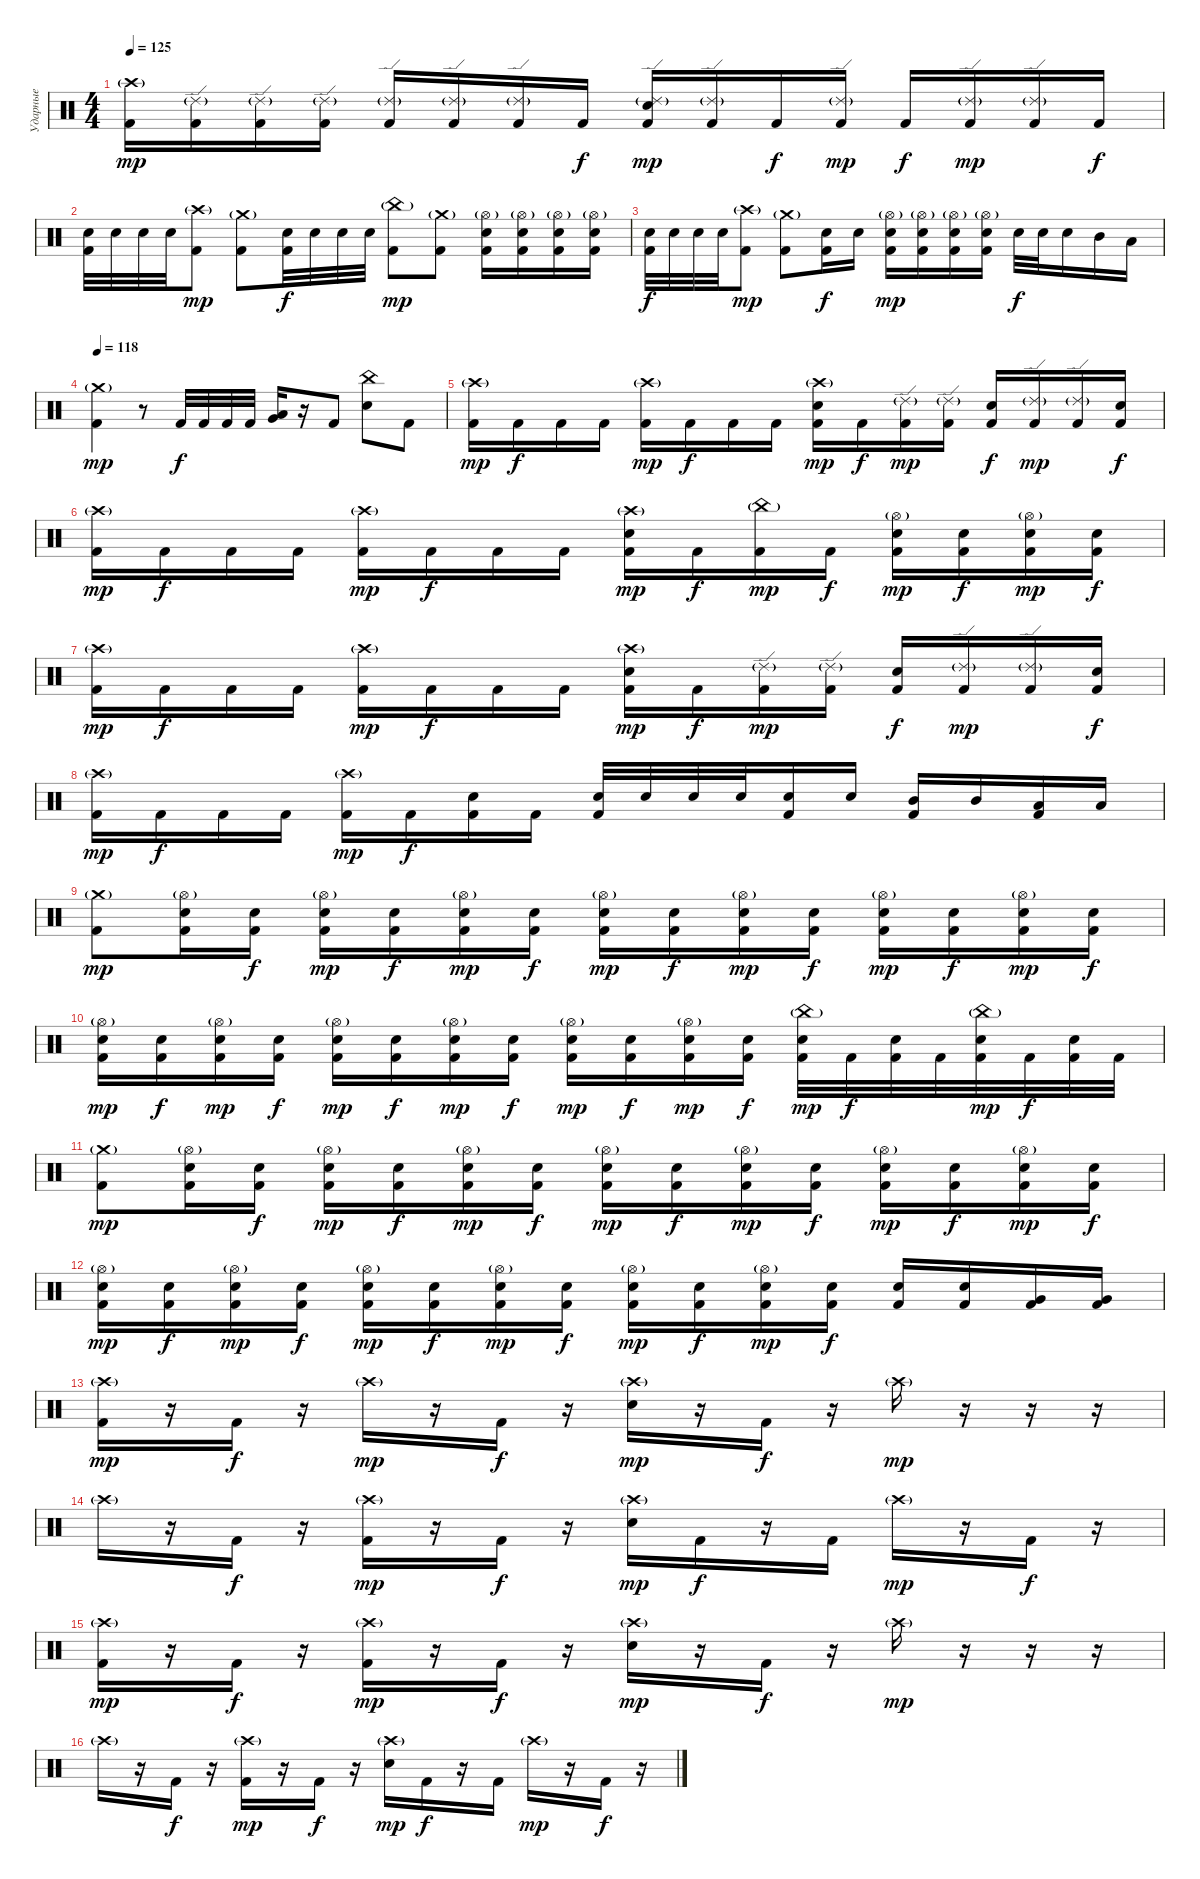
\track ("Ударные" "Ударные") {instrument percussion}
\staff {score}
\articulation defaults
\ts (4 4)
\tempo 125
\clef neutral
\ks c
("Crash high (hit)"{g} "Kick (hit) 2").16{dy mp} ("Ride (edge) 2"{g} "Kick (hit) 2").16 ("Ride (edge) 2"{g} "Kick (hit) 2").16 ("Ride (edge) 2"{g} "Kick (hit) 2").16 ("Ride (edge) 2"{g} "Kick (hit) 2").16 ("Ride (edge) 2"{g} "Kick (hit) 2").16 ("Ride (edge) 2"{g} "Kick (hit) 2").16 "Kick (hit) 2".16{dy f} ("Ride (edge) 2"{g} "Electric Snare (hit)" "Kick (hit) 2").16{dy mp} ("Ride (edge) 2"{g} "Kick (hit) 2").16 "Kick (hit) 2".16{dy f} ("Ride (edge) 2"{g} "Kick (hit) 2").16{dy mp} "Kick (hit) 2".16{dy f} ("Ride (edge) 2"{g} "Kick (hit) 2").16{dy mp} ("Ride (edge) 2"{g} "Kick (hit) 2").16 "Kick (hit) 2".16{dy f} |
("Electric Snare (hit)" "Kick (hit) 2").32 "Electric Snare (hit)".32 "Electric Snare (hit)".32 "Electric Snare (hit)".32 ("Crash high (hit)"{g} "Kick (hit) 2").8{dy mp} ("Crash medium (hit)"{g} "Kick (hit) 2").8 ("Electric Snare (hit)" "Kick (hit) 2").32{dy f} "Electric Snare (hit)".32 "Electric Snare (hit)".32 "Electric Snare (hit)".32 ("China (hit)"{g} "Kick (hit) 2").8{dy mp} ("Crash medium (hit)"{g} "Kick (hit) 2").8 ("Hi-Hat (open)"{g} "Electric Snare (hit)" "Kick (hit) 2").16 ("Hi-Hat (open)"{g} "Electric Snare (hit)" "Kick (hit) 2").16 ("Hi-Hat (open)"{g} "Electric Snare (hit)" "Kick (hit) 2").16 ("Hi-Hat (open)"{g} "Electric Snare (hit)" "Kick (hit) 2").16 |
("Electric Snare (hit)" "Kick (hit) 2").32{dy f} "Electric Snare (hit)".32 "Electric Snare (hit)".32 "Electric Snare (hit)".32 ("Crash high (hit)"{g} "Kick (hit) 2").8{dy mp} ("Crash medium (hit)"{g} "Kick (hit) 2").8 ("Electric Snare (hit)" "Kick (hit) 2").16{dy f} "Electric Snare (hit)".16 ("Hi-Hat (open)"{g} "Electric Snare (hit)" "Kick (hit) 2").16{dy mp} ("Hi-Hat (open)"{g} "Electric Snare (hit)" "Kick (hit) 2").16 ("Hi-Hat (open)"{g} "Electric Snare (hit)" "Kick (hit) 2").16 ("Hi-Hat (open)"{g} "Electric Snare (hit)" "Kick (hit) 2").16 "Electric Snare (hit)".32{dy f} "Electric Snare (hit)".32 "Electric Snare (hit)".16 "Mid Tom (hit)".16 "Low Tom (hit)".16 |
\tempo 118
("Crash medium (hit)"{g} "Kick (hit) 2").4{dy mp} r.8 "Kick (hit) 2".32{dy f} "Kick (hit) 2".32 "Kick (hit) 2".32 "Kick (hit) 2".32 ("Low Floor Tom (hit)" "Very Low Tom (hit)").16 r.16 "Kick (hit) 2".8 ("China (hit)" "Electric Snare (hit)").8 "Kick (hit) 2".8 |
("Crash high (hit)"{g} "Kick (hit) 2").16{dy mp} "Kick (hit) 2".16{dy f} "Kick (hit) 2".16 "Kick (hit) 2".16 ("Crash high (hit)"{g} "Kick (hit) 2").16{dy mp} "Kick (hit) 2".16{dy f} "Kick (hit) 2".16 "Kick (hit) 2".16 ("Crash high (hit)"{g} "Electric Snare (hit)" "Kick (hit) 2").16{dy mp} "Kick (hit) 2".16{dy f} ("Ride (edge) 2"{g} "Kick (hit) 2").16{dy mp} ("Ride (edge) 2"{g} "Kick (hit) 2").16 ("Electric Snare (hit)" "Kick (hit) 2").16{dy f} ("Ride (edge) 2"{g} "Kick (hit) 2").16{dy mp} ("Ride (edge) 2"{g} "Kick (hit) 2").16 ("Electric Snare (hit)" "Kick (hit) 2").16{dy f} |
("Crash high (hit)"{g} "Kick (hit) 2").16{dy mp} "Kick (hit) 2".16{dy f} "Kick (hit) 2".16 "Kick (hit) 2".16 ("Crash high (hit)"{g} "Kick (hit) 2").16{dy mp} "Kick (hit) 2".16{dy f} "Kick (hit) 2".16 "Kick (hit) 2".16 ("Crash high (hit)"{g} "Electric Snare (hit)" "Kick (hit) 2").16{dy mp} "Kick (hit) 2".16{dy f} ("China (hit)"{g} "Kick (hit) 2").16{dy mp} "Kick (hit) 2".16{dy f} ("Hi-Hat (open)"{g} "Electric Snare (hit)" "Kick (hit) 2").16{dy mp} ("Electric Snare (hit)" "Kick (hit) 2").16{dy f} ("Hi-Hat (open)"{g} "Electric Snare (hit)" "Kick (hit) 2").16{dy mp} ("Electric Snare (hit)" "Kick (hit) 2").16{dy f} |
("Crash high (hit)"{g} "Kick (hit) 2").16{dy mp} "Kick (hit) 2".16{dy f} "Kick (hit) 2".16 "Kick (hit) 2".16 ("Crash high (hit)"{g} "Kick (hit) 2").16{dy mp} "Kick (hit) 2".16{dy f} "Kick (hit) 2".16 "Kick (hit) 2".16 ("Crash high (hit)"{g} "Electric Snare (hit)" "Kick (hit) 2").16{dy mp} "Kick (hit) 2".16{dy f} ("Ride (edge) 2"{g} "Kick (hit) 2").16{dy mp} ("Ride (edge) 2"{g} "Kick (hit) 2").16 ("Electric Snare (hit)" "Kick (hit) 2").16{dy f} ("Ride (edge) 2"{g} "Kick (hit) 2").16{dy mp} ("Ride (edge) 2"{g} "Kick (hit) 2").16 ("Electric Snare (hit)" "Kick (hit) 2").16{dy f} |
("Crash high (hit)"{g} "Kick (hit) 2").16{dy mp} "Kick (hit) 2".16{dy f} "Kick (hit) 2".16 "Kick (hit) 2".16 ("Crash high (hit)"{g} "Kick (hit) 2").16{dy mp} "Kick (hit) 2".16{dy f} ("Electric Snare (hit)" "Kick (hit) 2").16 "Kick (hit) 2".16 ("Electric Snare (hit)" "Kick (hit) 2").32 "Electric Snare (hit)".32 "Electric Snare (hit)".32 "Electric Snare (hit)".32 ("Electric Snare (hit)" "Kick (hit) 2").16 "Electric Snare (hit)".16 ("Mid Tom (hit)" "Kick (hit) 2").16 "Mid Tom (hit)".16 ("Low Tom (hit)" "Kick (hit) 2").16 "Low Tom (hit)".16 |
("Crash medium (hit)"{g} "Kick (hit) 2").8{dy mp} ("Electric Snare (hit)" "Hi-Hat (open)"{g} "Kick (hit) 2").16 ("Electric Snare (hit)" "Kick (hit) 2").16{dy f} ("Electric Snare (hit)" "Hi-Hat (open)"{g} "Kick (hit) 2").16{dy mp} ("Electric Snare (hit)" "Kick (hit) 2").16{dy f} ("Electric Snare (hit)" "Hi-Hat (open)"{g} "Kick (hit) 2").16{dy mp} ("Electric Snare (hit)" "Kick (hit) 2").16{dy f} ("Electric Snare (hit)" "Hi-Hat (open)"{g} "Kick (hit) 2").16{dy mp} ("Electric Snare (hit)" "Kick (hit) 2").16{dy f} ("Electric Snare (hit)" "Hi-Hat (open)"{g} "Kick (hit) 2").16{dy mp} ("Electric Snare (hit)" "Kick (hit) 2").16{dy f} ("Electric Snare (hit)" "Hi-Hat (open)"{g} "Kick (hit) 2").16{dy mp} ("Electric Snare (hit)" "Kick (hit) 2").16{dy f} ("Electric Snare (hit)" "Hi-Hat (open)"{g} "Kick (hit) 2").16{dy mp} ("Electric Snare (hit)" "Kick (hit) 2").16{dy f} |
("Electric Snare (hit)" "Hi-Hat (open)"{g} "Kick (hit) 2").16{dy mp} ("Electric Snare (hit)" "Kick (hit) 2").16{dy f} ("Electric Snare (hit)" "Hi-Hat (open)"{g} "Kick (hit) 2").16{dy mp} ("Electric Snare (hit)" "Kick (hit) 2").16{dy f} ("Electric Snare (hit)" "Hi-Hat (open)"{g} "Kick (hit) 2").16{dy mp} ("Electric Snare (hit)" "Kick (hit) 2").16{dy f} ("Electric Snare (hit)" "Hi-Hat (open)"{g} "Kick (hit) 2").16{dy mp} ("Electric Snare (hit)" "Kick (hit) 2").16{dy f} ("Electric Snare (hit)" "Hi-Hat (open)"{g} "Kick (hit) 2").16{dy mp} ("Electric Snare (hit)" "Kick (hit) 2").16{dy f} ("Electric Snare (hit)" "Hi-Hat (open)"{g} "Kick (hit) 2").16{dy mp} ("Electric Snare (hit)" "Kick (hit) 2").16{dy f} ("Electric Snare (hit)" "China (hit)"{g} "Kick (hit) 2").32{dy mp} "Kick (hit) 2".32{dy f} ("Electric Snare (hit)" "Kick (hit) 2").32 "Kick (hit) 2".32 ("Electric Snare (hit)" "China (hit)"{g} "Kick (hit) 2").32{dy mp} "Kick (hit) 2".32{dy f} ("Electric Snare (hit)" "Kick (hit) 2").32 "Kick (hit) 2".32 |
("Crash medium (hit)"{g} "Kick (hit) 2").8{dy mp} ("Electric Snare (hit)" "Hi-Hat (open)"{g} "Kick (hit) 2").16 ("Electric Snare (hit)" "Kick (hit) 2").16{dy f} ("Electric Snare (hit)" "Hi-Hat (open)"{g} "Kick (hit) 2").16{dy mp} ("Electric Snare (hit)" "Kick (hit) 2").16{dy f} ("Electric Snare (hit)" "Hi-Hat (open)"{g} "Kick (hit) 2").16{dy mp} ("Electric Snare (hit)" "Kick (hit) 2").16{dy f} ("Electric Snare (hit)" "Hi-Hat (open)"{g} "Kick (hit) 2").16{dy mp} ("Electric Snare (hit)" "Kick (hit) 2").16{dy f} ("Electric Snare (hit)" "Hi-Hat (open)"{g} "Kick (hit) 2").16{dy mp} ("Electric Snare (hit)" "Kick (hit) 2").16{dy f} ("Electric Snare (hit)" "Hi-Hat (open)"{g} "Kick (hit) 2").16{dy mp} ("Electric Snare (hit)" "Kick (hit) 2").16{dy f} ("Electric Snare (hit)" "Hi-Hat (open)"{g} "Kick (hit) 2").16{dy mp} ("Electric Snare (hit)" "Kick (hit) 2").16{dy f} |
("Electric Snare (hit)" "Hi-Hat (open)"{g} "Kick (hit) 2").16{dy mp} ("Electric Snare (hit)" "Kick (hit) 2").16{dy f} ("Electric Snare (hit)" "Hi-Hat (open)"{g} "Kick (hit) 2").16{dy mp} ("Electric Snare (hit)" "Kick (hit) 2").16{dy f} ("Electric Snare (hit)" "Hi-Hat (open)"{g} "Kick (hit) 2").16{dy mp} ("Electric Snare (hit)" "Kick (hit) 2").16{dy f} ("Electric Snare (hit)" "Hi-Hat (open)"{g} "Kick (hit) 2").16{dy mp} ("Electric Snare (hit)" "Kick (hit) 2").16{dy f} ("Electric Snare (hit)" "Hi-Hat (open)"{g} "Kick (hit) 2").16{dy mp} ("Electric Snare (hit)" "Kick (hit) 2").16{dy f} ("Electric Snare (hit)" "Hi-Hat (open)"{g} "Kick (hit) 2").16{dy mp} ("Electric Snare (hit)" "Kick (hit) 2").16{dy f} ("Electric Snare (hit)" "Kick (hit) 2").16 ("Electric Snare (hit)" "Kick (hit) 2").16 ("Very Low Tom (hit)" "Kick (hit) 2").16 ("Very Low Tom (hit)" "Kick (hit) 2").16 |
("Crash high (hit)"{g} "Kick (hit) 2").16{dy mp} r.16 "Kick (hit) 2".16{dy f} r.16 "Crash high (hit)"{g}.16{dy mp} r.16 "Kick (hit) 2".16{dy f} r.16 ("Crash high (hit)"{g} "Electric Snare (hit)").16{dy mp} r.16 "Kick (hit) 2".16{dy f} r.16 "Crash high (hit)"{g}.16{dy mp} r.16 r.16 r.16 |
"Crash high (hit)"{g}.16 r.16 "Kick (hit) 2".16{dy f} r.16 ("Crash high (hit)"{g} "Kick (hit) 2").16{dy mp} r.16 "Kick (hit) 2".16{dy f} r.16 ("Crash high (hit)"{g} "Electric Snare (hit)").16{dy mp} "Kick (hit) 2".16{dy f} r.16 "Kick (hit) 2".16 "Crash high (hit)"{g}.16{dy mp} r.16 "Kick (hit) 2".16{dy f} r.16 |
("Crash high (hit)"{g} "Kick (hit) 2").16{dy mp} r.16 "Kick (hit) 2".16{dy f} r.16 ("Crash high (hit)"{g} "Kick (hit) 2").16{dy mp} r.16 "Kick (hit) 2".16{dy f} r.16 ("Crash high (hit)"{g} "Electric Snare (hit)").16{dy mp} r.16 "Kick (hit) 2".16{dy f} r.16 "Crash high (hit)"{g}.16{dy mp} r.16 r.16 r.16 |
"Crash high (hit)"{g}.16 r.16 "Kick (hit) 2".16{dy f} r.16 ("Crash high (hit)"{g} "Kick (hit) 2").16{dy mp} r.16 "Kick (hit) 2".16{dy f} r.16 ("Crash high (hit)"{g} "Electric Snare (hit)").16{dy mp} "Kick (hit) 2".16{dy f} r.16 "Kick (hit) 2".16 "Crash high (hit)"{g}.16{dy mp} r.16 "Kick (hit) 2".16{dy f} r.16
